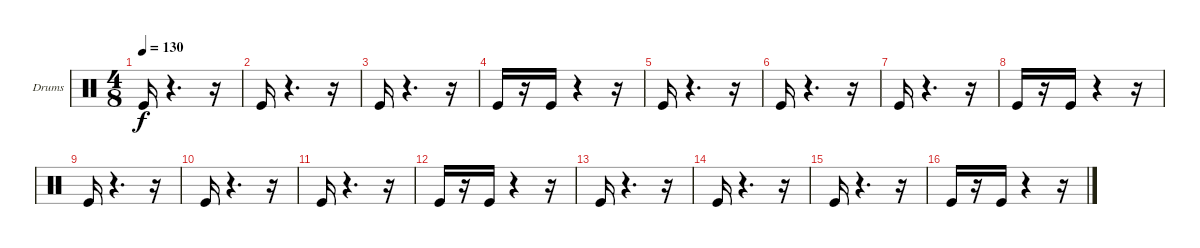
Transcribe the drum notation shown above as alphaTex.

\bracketExtendMode groupsimilarinstruments
\firstSystemTrackNameOrientation horizontal
\otherSystemsTrackNameOrientation horizontal
\track ("Ударные" "Drums") {instrument percussion}
\staff {score}
\articulation defaults
\ts (4 8)
\tempo 130
\clef neutral
\ks c "Kick (hit)".16{dy f}
r.4{d} r.16 |
"Kick (hit)".16 r.4{d} r.16 |
"Kick (hit)".16 r.4{d} r.16 |
"Kick (hit)".16 r.16 "Kick (hit)".16 r.4 r.16 |
"Kick (hit)".16 r.4{d} r.16 |
"Kick (hit)".16 r.4{d} r.16 |
"Kick (hit)".16 r.4{d} r.16 |
"Kick (hit)".16 r.16 "Kick (hit)".16 r.4 r.16 |
"Kick (hit)".16 r.4{d} r.16 |
"Kick (hit)".16 r.4{d} r.16 |
"Kick (hit)".16 r.4{d} r.16 |
"Kick (hit)".16 r.16 "Kick (hit)".16 r.4 r.16 |
"Kick (hit)".16 r.4{d} r.16 |
"Kick (hit)".16 r.4{d} r.16 |
"Kick (hit)".16 r.4{d} r.16 |
"Kick (hit)".16 r.16 "Kick (hit)".16 r.4 r.16
